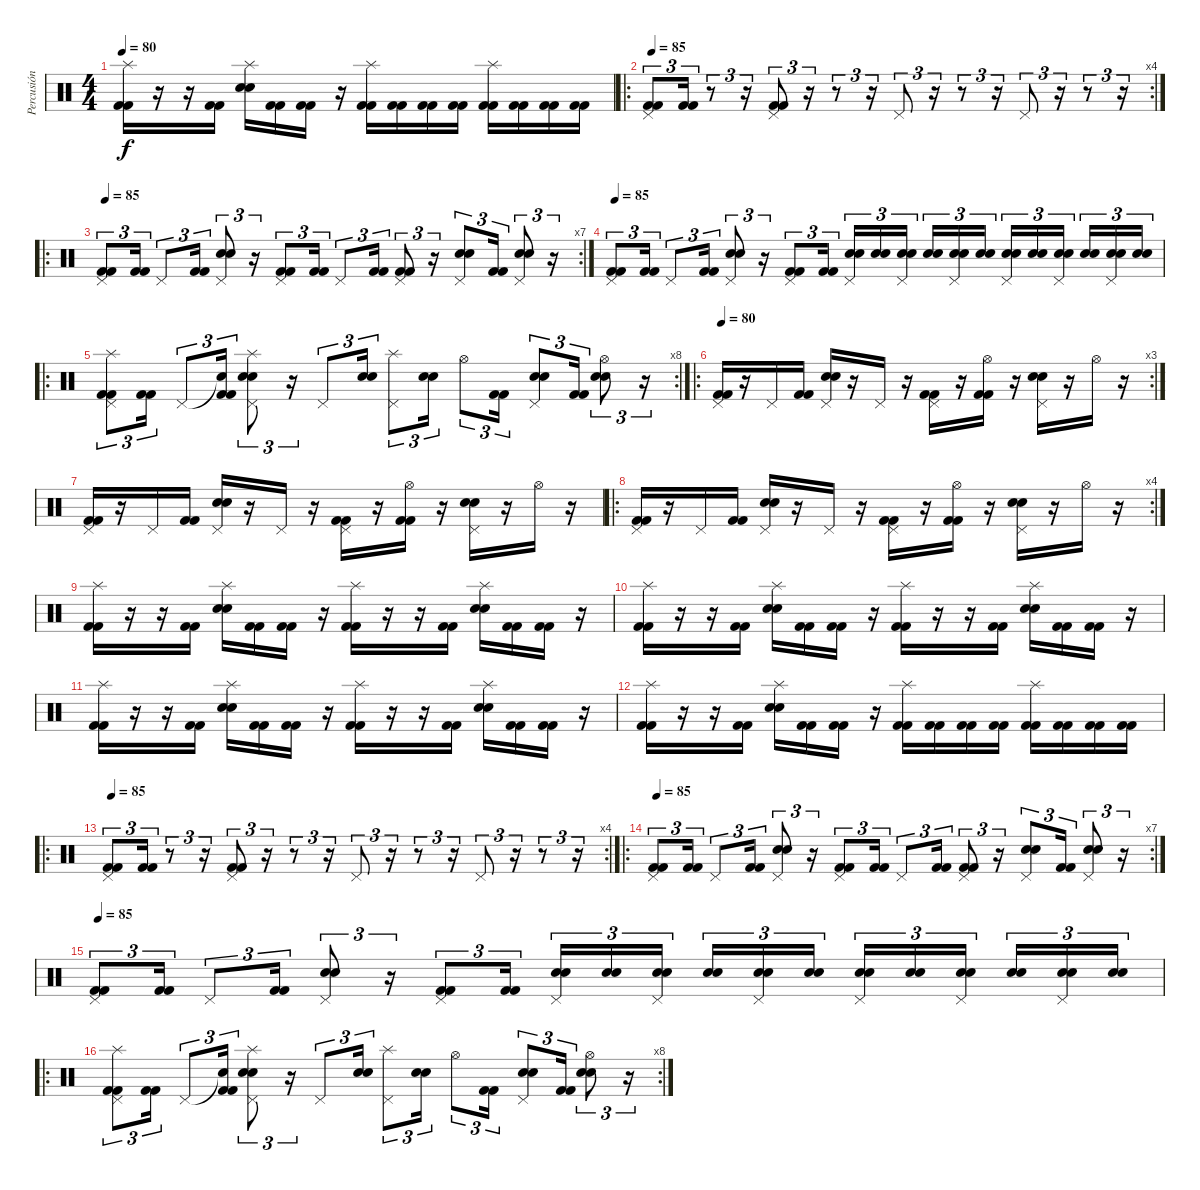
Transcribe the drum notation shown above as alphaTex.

\track ("Percusión" "Percusión") {instrument percussion}
\staff {score}
\articulation defaults
\ts (4 4)
\tempo 80
\clef neutral
\ks c
("Splash (hit)" "Kick (hit) 2" "Kick (hit) 2").16{dy f} r.16 r.16 ("Kick (hit) 2" "Kick (hit) 2").16 ("Splash (hit)" "Electric Snare (hit)" "Electric Snare (hit)").16 ("Kick (hit) 2" "Kick (hit) 2").16 ("Kick (hit) 2" "Kick (hit) 2").16 r.16 ("Splash (hit)" "Kick (hit) 2" "Kick (hit) 2").16 ("Kick (hit) 2" "Kick (hit) 2").16 ("Kick (hit) 2" "Kick (hit) 2").16 ("Kick (hit) 2" "Kick (hit) 2").16 ("Splash (hit)" "Kick (hit) 2" "Kick (hit) 2").16 ("Kick (hit) 2" "Kick (hit) 2").16 ("Kick (hit) 2" "Kick (hit) 2").16 ("Kick (hit) 2" "Kick (hit) 2").16 |
\ro
\rc 4
\tempo 85
("Pedal Hi-Hat (hit)" "Kick (hit) 2" "Kick (hit) 2").8{tu (3 2)} ("Kick (hit) 2" "Kick (hit) 2").16{tu (3 2)} r.8{tu (3 2)} r.16{tu (3 2)} ("Pedal Hi-Hat (hit)" "Kick (hit) 2" "Kick (hit) 2").8{tu (3 2)} r.16{tu (3 2)} r.8{tu (3 2)} r.16{tu (3 2)} "Pedal Hi-Hat (hit)".8{tu (3 2)} r.16{tu (3 2)} r.8{tu (3 2)} r.16{tu (3 2)} "Pedal Hi-Hat (hit)".8{tu (3 2)} r.16{tu (3 2)} r.8{tu (3 2)} r.16{tu (3 2)} |
\ro
\rc 7
\tempo 85
("Pedal Hi-Hat (hit)" "Kick (hit) 2" "Kick (hit) 2").8{tu (3 2)} ("Kick (hit) 2" "Kick (hit) 2").16{tu (3 2)} "Pedal Hi-Hat (hit)".8{tu (3 2)} ("Kick (hit) 2" "Kick (hit) 2").16{tu (3 2)} ("Pedal Hi-Hat (hit)" "Electric Snare (hit)" "Electric Snare (hit)").8{tu (3 2)} r.16{tu (3 2)} ("Pedal Hi-Hat (hit)" "Kick (hit) 2" "Kick (hit) 2").8{tu (3 2)} ("Kick (hit) 2" "Kick (hit) 2").16{tu (3 2)} "Pedal Hi-Hat (hit)".8{tu (3 2)} ("Kick (hit) 2" "Kick (hit) 2").16{tu (3 2)} ("Pedal Hi-Hat (hit)" "Kick (hit) 2" "Kick (hit) 2").8{tu (3 2)} r.16{tu (3 2)} ("Pedal Hi-Hat (hit)" "Electric Snare (hit)" "Electric Snare (hit)").8{tu (3 2)} ("Kick (hit) 2" "Kick (hit) 2").16{tu (3 2)} ("Pedal Hi-Hat (hit)" "Electric Snare (hit)" "Electric Snare (hit)").8{tu (3 2)} r.16{tu (3 2)} |
\tempo 85
("Pedal Hi-Hat (hit)" "Kick (hit) 2" "Kick (hit) 2").8{tu (3 2)} ("Kick (hit) 2" "Kick (hit) 2").16{tu (3 2)} "Pedal Hi-Hat (hit)".8{tu (3 2)} ("Kick (hit) 2" "Kick (hit) 2").16{tu (3 2)} ("Pedal Hi-Hat (hit)" "Electric Snare (hit)" "Electric Snare (hit)").8{tu (3 2)} r.16{tu (3 2)} ("Pedal Hi-Hat (hit)" "Kick (hit) 2" "Kick (hit) 2").8{tu (3 2)} ("Kick (hit) 2" "Kick (hit) 2").16{tu (3 2)} ("Pedal Hi-Hat (hit)" "Electric Snare (hit)" "Electric Snare (hit)").16{tu (3 2)} ("Electric Snare (hit)" "Electric Snare (hit)").16{tu (3 2)} ("Pedal Hi-Hat (hit)" "Electric Snare (hit)" "Electric Snare (hit)").16{tu (3 2)} ("Electric Snare (hit)" "Electric Snare (hit)").16{tu (3 2)} ("Pedal Hi-Hat (hit)" "Electric Snare (hit)" "Electric Snare (hit)").16{tu (3 2)} ("Electric Snare (hit)" "Electric Snare (hit)").16{tu (3 2)} ("Pedal Hi-Hat (hit)" "Electric Snare (hit)" "Electric Snare (hit)").16{tu (3 2)} ("Electric Snare (hit)" "Electric Snare (hit)").16{tu (3 2)} ("Pedal Hi-Hat (hit)" "Electric Snare (hit)" "Electric Snare (hit)").16{tu (3 2)} ("Electric Snare (hit)" "Electric Snare (hit)").16{tu (3 2)} ("Pedal Hi-Hat (hit)" "Electric Snare (hit)" "Electric Snare (hit)").16{tu (3 2)} ("Electric Snare (hit)" "Electric Snare (hit)").16{tu (3 2)} |
\ro
\rc 8
("Pedal Hi-Hat (hit)" "Splash (hit)" "Kick (hit) 2" "Kick (hit) 2").8{tu (3 2)} ("Kick (hit) 2" "Kick (hit) 2").16{tu (3 2)} "Pedal Hi-Hat (hit)".8{tu (3 2)} ("Snare (hit)"{t} "Kick (hit) 2" "Kick (hit) 2").16{tu (3 2)} ("Pedal Hi-Hat (hit)" "Splash (hit)" "Electric Snare (hit)" "Electric Snare (hit)").8{tu (3 2)} r.16{tu (3 2)} "Pedal Hi-Hat (hit)".8{tu (3 2)} ("Electric Snare (hit)" "Electric Snare (hit)").16{tu (3 2)} ("Pedal Hi-Hat (hit)" "Splash (hit)").8{tu (3 2)} ("Electric Snare (hit)" "Electric Snare (hit)").16{tu (3 2)} "Hi-Hat (open)".8{tu (3 2)} ("Kick (hit) 2" "Kick (hit) 2").16{tu (3 2)} ("Pedal Hi-Hat (hit)" "Electric Snare (hit)" "Electric Snare (hit)").8{tu (3 2)} ("Kick (hit) 2" "Kick (hit) 2").16{tu (3 2)} ("Hi-Hat (open)" "Electric Snare (hit)" "Electric Snare (hit)").8{tu (3 2)} r.16{tu (3 2)} |
\ro
\rc 3
\tempo 80
("Pedal Hi-Hat (hit)" "Kick (hit) 2" "Kick (hit) 2").16 r.16 "Pedal Hi-Hat (hit)".16 ("Kick (hit) 2" "Kick (hit) 2").16 ("Pedal Hi-Hat (hit)" "Electric Snare (hit)" "Electric Snare (hit)").16 r.16 "Pedal Hi-Hat (hit)".16 r.16 ("Pedal Hi-Hat (hit)" "Kick (hit) 2" "Kick (hit) 2").16 r.16 ("Hi-Hat (open)" "Kick (hit) 2" "Kick (hit) 2").16 r.16 ("Pedal Hi-Hat (hit)" "Electric Snare (hit)" "Electric Snare (hit)").16 r.16 "Hi-Hat (open)".16 r.16 |
("Pedal Hi-Hat (hit)" "Kick (hit) 2" "Kick (hit) 2").16 r.16 "Pedal Hi-Hat (hit)".16 ("Kick (hit) 2" "Kick (hit) 2").16 ("Pedal Hi-Hat (hit)" "Electric Snare (hit)" "Electric Snare (hit)").16 r.16 "Pedal Hi-Hat (hit)".16 r.16 ("Pedal Hi-Hat (hit)" "Kick (hit) 2" "Kick (hit) 2").16 r.16 ("Hi-Hat (open)" "Kick (hit) 2" "Kick (hit) 2").16 r.16 ("Pedal Hi-Hat (hit)" "Electric Snare (hit)" "Electric Snare (hit)").16 r.16 "Hi-Hat (open)".16 r.16 |
\ro
\rc 4
("Pedal Hi-Hat (hit)" "Kick (hit) 2" "Kick (hit) 2").16 r.16 "Pedal Hi-Hat (hit)".16 ("Kick (hit) 2" "Kick (hit) 2").16 ("Pedal Hi-Hat (hit)" "Electric Snare (hit)" "Electric Snare (hit)").16 r.16 "Pedal Hi-Hat (hit)".16 r.16 ("Pedal Hi-Hat (hit)" "Kick (hit) 2" "Kick (hit) 2").16 r.16 ("Hi-Hat (open)" "Kick (hit) 2" "Kick (hit) 2").16 r.16 ("Pedal Hi-Hat (hit)" "Electric Snare (hit)" "Electric Snare (hit)").16 r.16 "Hi-Hat (open)".16 r.16 |
("Splash (hit)" "Kick (hit) 2" "Kick (hit) 2").16 r.16 r.16 ("Kick (hit) 2" "Kick (hit) 2").16 ("Splash (hit)" "Electric Snare (hit)" "Electric Snare (hit)").16 ("Kick (hit) 2" "Kick (hit) 2").16 ("Kick (hit) 2" "Kick (hit) 2").16 r.16 ("Splash (hit)" "Kick (hit) 2" "Kick (hit) 2").16 r.16 r.16 ("Kick (hit) 2" "Kick (hit) 2").16 ("Splash (hit)" "Electric Snare (hit)" "Electric Snare (hit)").16 ("Kick (hit) 2" "Kick (hit) 2").16 ("Kick (hit) 2" "Kick (hit) 2").16 r.16 |
("Splash (hit)" "Kick (hit) 2" "Kick (hit) 2").16 r.16 r.16 ("Kick (hit) 2" "Kick (hit) 2").16 ("Splash (hit)" "Electric Snare (hit)" "Electric Snare (hit)").16 ("Kick (hit) 2" "Kick (hit) 2").16 ("Kick (hit) 2" "Kick (hit) 2").16 r.16 ("Splash (hit)" "Kick (hit) 2" "Kick (hit) 2").16 r.16 r.16 ("Kick (hit) 2" "Kick (hit) 2").16 ("Splash (hit)" "Electric Snare (hit)" "Electric Snare (hit)").16 ("Kick (hit) 2" "Kick (hit) 2").16 ("Kick (hit) 2" "Kick (hit) 2").16 r.16 |
("Splash (hit)" "Kick (hit) 2" "Kick (hit) 2").16 r.16 r.16 ("Kick (hit) 2" "Kick (hit) 2").16 ("Splash (hit)" "Electric Snare (hit)" "Electric Snare (hit)").16 ("Kick (hit) 2" "Kick (hit) 2").16 ("Kick (hit) 2" "Kick (hit) 2").16 r.16 ("Splash (hit)" "Kick (hit) 2" "Kick (hit) 2").16 r.16 r.16 ("Kick (hit) 2" "Kick (hit) 2").16 ("Splash (hit)" "Electric Snare (hit)" "Electric Snare (hit)").16 ("Kick (hit) 2" "Kick (hit) 2").16 ("Kick (hit) 2" "Kick (hit) 2").16 r.16 |
("Splash (hit)" "Kick (hit) 2" "Kick (hit) 2").16 r.16 r.16 ("Kick (hit) 2" "Kick (hit) 2").16 ("Splash (hit)" "Electric Snare (hit)" "Electric Snare (hit)").16 ("Kick (hit) 2" "Kick (hit) 2").16 ("Kick (hit) 2" "Kick (hit) 2").16 r.16 ("Splash (hit)" "Kick (hit) 2" "Kick (hit) 2").16 ("Kick (hit) 2" "Kick (hit) 2").16 ("Kick (hit) 2" "Kick (hit) 2").16 ("Kick (hit) 2" "Kick (hit) 2").16 ("Splash (hit)" "Kick (hit) 2" "Kick (hit) 2").16 ("Kick (hit) 2" "Kick (hit) 2").16 ("Kick (hit) 2" "Kick (hit) 2").16 ("Kick (hit) 2" "Kick (hit) 2").16 |
\ro
\rc 4
\tempo 85
("Pedal Hi-Hat (hit)" "Kick (hit) 2" "Kick (hit) 2").8{tu (3 2)} ("Kick (hit) 2" "Kick (hit) 2").16{tu (3 2)} r.8{tu (3 2)} r.16{tu (3 2)} ("Pedal Hi-Hat (hit)" "Kick (hit) 2" "Kick (hit) 2").8{tu (3 2)} r.16{tu (3 2)} r.8{tu (3 2)} r.16{tu (3 2)} "Pedal Hi-Hat (hit)".8{tu (3 2)} r.16{tu (3 2)} r.8{tu (3 2)} r.16{tu (3 2)} "Pedal Hi-Hat (hit)".8{tu (3 2)} r.16{tu (3 2)} r.8{tu (3 2)} r.16{tu (3 2)} |
\ro
\rc 7
\tempo 85
("Pedal Hi-Hat (hit)" "Kick (hit) 2" "Kick (hit) 2").8{tu (3 2)} ("Kick (hit) 2" "Kick (hit) 2").16{tu (3 2)} "Pedal Hi-Hat (hit)".8{tu (3 2)} ("Kick (hit) 2" "Kick (hit) 2").16{tu (3 2)} ("Pedal Hi-Hat (hit)" "Electric Snare (hit)" "Electric Snare (hit)").8{tu (3 2)} r.16{tu (3 2)} ("Pedal Hi-Hat (hit)" "Kick (hit) 2" "Kick (hit) 2").8{tu (3 2)} ("Kick (hit) 2" "Kick (hit) 2").16{tu (3 2)} "Pedal Hi-Hat (hit)".8{tu (3 2)} ("Kick (hit) 2" "Kick (hit) 2").16{tu (3 2)} ("Pedal Hi-Hat (hit)" "Kick (hit) 2" "Kick (hit) 2").8{tu (3 2)} r.16{tu (3 2)} ("Pedal Hi-Hat (hit)" "Electric Snare (hit)" "Electric Snare (hit)").8{tu (3 2)} ("Kick (hit) 2" "Kick (hit) 2").16{tu (3 2)} ("Pedal Hi-Hat (hit)" "Electric Snare (hit)" "Electric Snare (hit)").8{tu (3 2)} r.16{tu (3 2)} |
\tempo 85
("Pedal Hi-Hat (hit)" "Kick (hit) 2" "Kick (hit) 2").8{tu (3 2)} ("Kick (hit) 2" "Kick (hit) 2").16{tu (3 2)} "Pedal Hi-Hat (hit)".8{tu (3 2)} ("Kick (hit) 2" "Kick (hit) 2").16{tu (3 2)} ("Pedal Hi-Hat (hit)" "Electric Snare (hit)" "Electric Snare (hit)").8{tu (3 2)} r.16{tu (3 2)} ("Pedal Hi-Hat (hit)" "Kick (hit) 2" "Kick (hit) 2").8{tu (3 2)} ("Kick (hit) 2" "Kick (hit) 2").16{tu (3 2)} ("Pedal Hi-Hat (hit)" "Electric Snare (hit)" "Electric Snare (hit)").16{tu (3 2)} ("Electric Snare (hit)" "Electric Snare (hit)").16{tu (3 2)} ("Pedal Hi-Hat (hit)" "Electric Snare (hit)" "Electric Snare (hit)").16{tu (3 2)} ("Electric Snare (hit)" "Electric Snare (hit)").16{tu (3 2)} ("Pedal Hi-Hat (hit)" "Electric Snare (hit)" "Electric Snare (hit)").16{tu (3 2)} ("Electric Snare (hit)" "Electric Snare (hit)").16{tu (3 2)} ("Pedal Hi-Hat (hit)" "Electric Snare (hit)" "Electric Snare (hit)").16{tu (3 2)} ("Electric Snare (hit)" "Electric Snare (hit)").16{tu (3 2)} ("Pedal Hi-Hat (hit)" "Electric Snare (hit)" "Electric Snare (hit)").16{tu (3 2)} ("Electric Snare (hit)" "Electric Snare (hit)").16{tu (3 2)} ("Pedal Hi-Hat (hit)" "Electric Snare (hit)" "Electric Snare (hit)").16{tu (3 2)} ("Electric Snare (hit)" "Electric Snare (hit)").16{tu (3 2)} |
\ro
\rc 8
("Pedal Hi-Hat (hit)" "Splash (hit)" "Kick (hit) 2" "Kick (hit) 2").8{tu (3 2)} ("Kick (hit) 2" "Kick (hit) 2").16{tu (3 2)} "Pedal Hi-Hat (hit)".8{tu (3 2)} ("Snare (hit)"{t} "Kick (hit) 2" "Kick (hit) 2").16{tu (3 2)} ("Pedal Hi-Hat (hit)" "Splash (hit)" "Electric Snare (hit)" "Electric Snare (hit)").8{tu (3 2)} r.16{tu (3 2)} "Pedal Hi-Hat (hit)".8{tu (3 2)} ("Electric Snare (hit)" "Electric Snare (hit)").16{tu (3 2)} ("Pedal Hi-Hat (hit)" "Splash (hit)").8{tu (3 2)} ("Electric Snare (hit)" "Electric Snare (hit)").16{tu (3 2)} "Hi-Hat (open)".8{tu (3 2)} ("Kick (hit) 2" "Kick (hit) 2").16{tu (3 2)} ("Pedal Hi-Hat (hit)" "Electric Snare (hit)" "Electric Snare (hit)").8{tu (3 2)} ("Kick (hit) 2" "Kick (hit) 2").16{tu (3 2)} ("Hi-Hat (open)" "Electric Snare (hit)" "Electric Snare (hit)").8{tu (3 2)} r.16{tu (3 2)}
